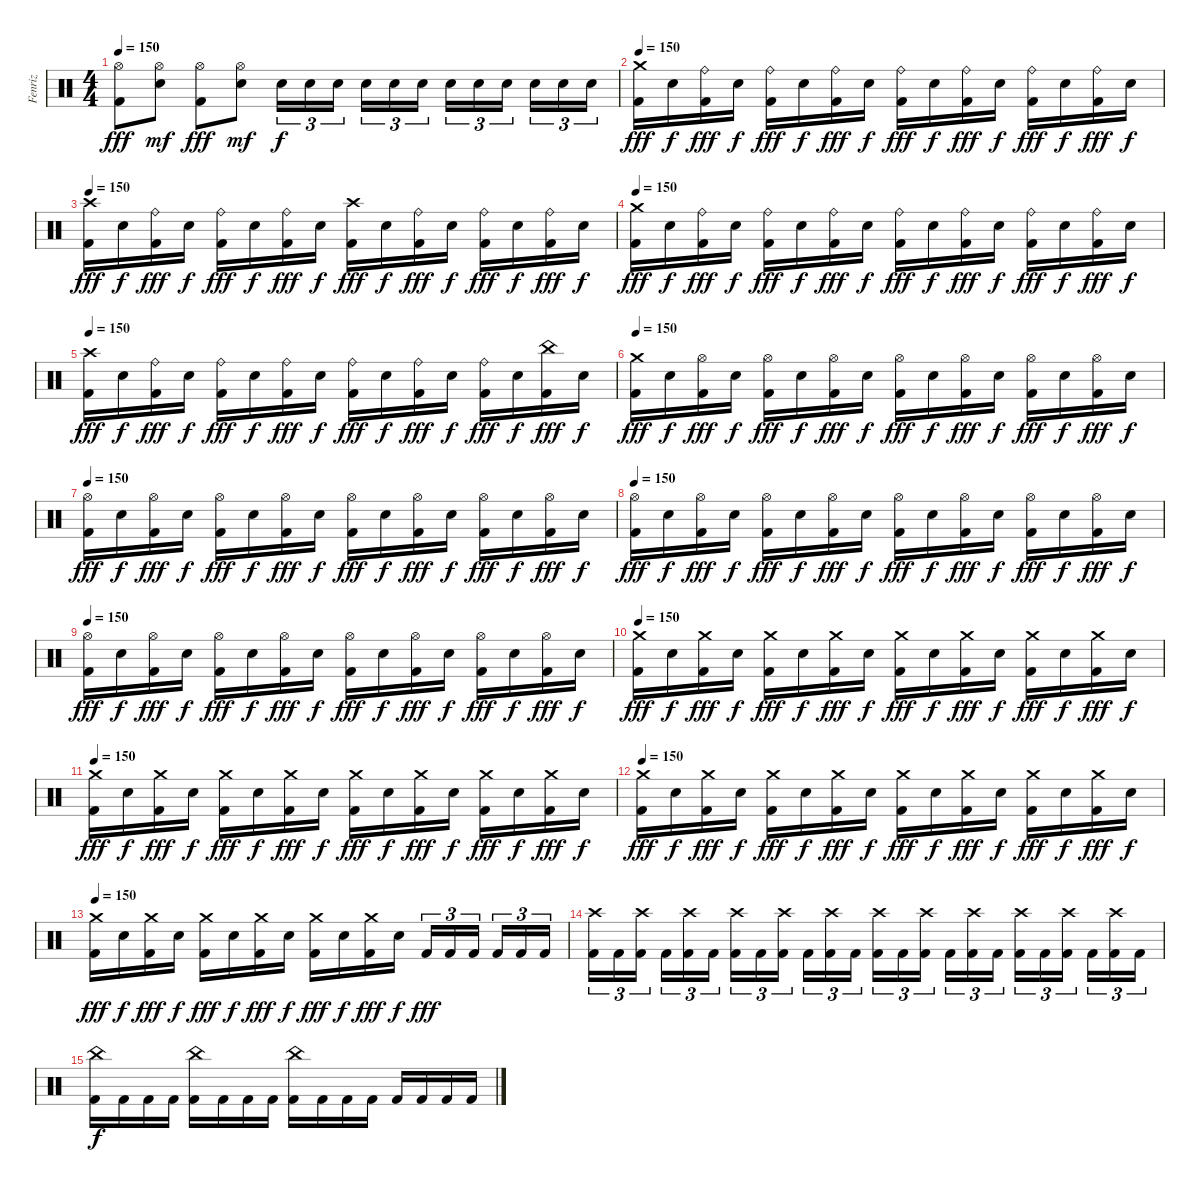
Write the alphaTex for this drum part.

\track ("Fenriz" "Fenriz") {instrument percussion}
\staff {score}
\articulation defaults
\ts (4 4)
\tempo 150
\clef neutral
\ks c
("Hi-Hat (open)" "Kick (hit) 2").8{dy fff} ("Hi-Hat (open)" "Electric Snare (hit)").8{dy mf} ("Hi-Hat (open)" "Kick (hit) 2").8{dy fff} ("Hi-Hat (open)" "Electric Snare (hit)").8{dy mf} "Electric Snare (hit)".16{tu (3 2) dy f} "Electric Snare (hit)".16{tu (3 2)} "Electric Snare (hit)".16{tu (3 2)} "Electric Snare (hit)".16{tu (3 2)} "Electric Snare (hit)".16{tu (3 2)} "Electric Snare (hit)".16{tu (3 2)} "Electric Snare (hit)".16{tu (3 2)} "Electric Snare (hit)".16{tu (3 2)} "Electric Snare (hit)".16{tu (3 2)} "Electric Snare (hit)".16{tu (3 2)} "Electric Snare (hit)".16{tu (3 2)} "Electric Snare (hit)".16{tu (3 2)} |
\tempo 150
("Crash medium (hit)" "Kick (hit) 2").16{dy fff} "Electric Snare (hit)".16{dy f} ("Ride (bell)" "Kick (hit) 2").16{dy fff} "Electric Snare (hit)".16{dy f} ("Ride (bell)" "Kick (hit) 2").16{dy fff} "Electric Snare (hit)".16{dy f} ("Ride (bell)" "Kick (hit) 2").16{dy fff} "Electric Snare (hit)".16{dy f} ("Ride (bell)" "Kick (hit) 2").16{dy fff} "Electric Snare (hit)".16{dy f} ("Ride (bell)" "Kick (hit) 2").16{dy fff} "Electric Snare (hit)".16{dy f} ("Ride (bell)" "Kick (hit) 2").16{dy fff} "Electric Snare (hit)".16{dy f} ("Ride (bell)" "Kick (hit) 2").16{dy fff} "Electric Snare (hit)".16{dy f} |
\tempo 150
("Crash high (hit)" "Kick (hit) 2").16{dy fff} "Electric Snare (hit)".16{dy f} ("Ride (bell)" "Kick (hit) 2").16{dy fff} "Electric Snare (hit)".16{dy f} ("Ride (bell)" "Kick (hit) 2").16{dy fff} "Electric Snare (hit)".16{dy f} ("Ride (bell)" "Kick (hit) 2").16{dy fff} "Electric Snare (hit)".16{dy f} ("Crash high (hit)" "Kick (hit) 2").16{dy fff} "Electric Snare (hit)".16{dy f} ("Ride (bell)" "Kick (hit) 2").16{dy fff} "Electric Snare (hit)".16{dy f} ("Ride (bell)" "Kick (hit) 2").16{dy fff} "Electric Snare (hit)".16{dy f} ("Ride (bell)" "Kick (hit) 2").16{dy fff} "Electric Snare (hit)".16{dy f} |
\tempo 150
("Crash medium (hit)" "Kick (hit) 2").16{dy fff} "Electric Snare (hit)".16{dy f} ("Ride (bell)" "Kick (hit) 2").16{dy fff} "Electric Snare (hit)".16{dy f} ("Ride (bell)" "Kick (hit) 2").16{dy fff} "Electric Snare (hit)".16{dy f} ("Ride (bell)" "Kick (hit) 2").16{dy fff} "Electric Snare (hit)".16{dy f} ("Ride (bell)" "Kick (hit) 2").16{dy fff} "Electric Snare (hit)".16{dy f} ("Ride (bell)" "Kick (hit) 2").16{dy fff} "Electric Snare (hit)".16{dy f} ("Ride (bell)" "Kick (hit) 2").16{dy fff} "Electric Snare (hit)".16{dy f} ("Ride (bell)" "Kick (hit) 2").16{dy fff} "Electric Snare (hit)".16{dy f} |
\tempo 150
("Crash high (hit)" "Kick (hit) 2").16{dy fff} "Electric Snare (hit)".16{dy f} ("Ride (bell)" "Kick (hit) 2").16{dy fff} "Electric Snare (hit)".16{dy f} ("Ride (bell)" "Kick (hit) 2").16{dy fff} "Electric Snare (hit)".16{dy f} ("Ride (bell)" "Kick (hit) 2").16{dy fff} "Electric Snare (hit)".16{dy f} ("Ride (bell)" "Kick (hit) 2").16{dy fff} "Electric Snare (hit)".16{dy f} ("Ride (bell)" "Kick (hit) 2").16{dy fff} "Electric Snare (hit)".16{dy f} ("Ride (bell)" "Kick (hit) 2").16{dy fff} "Electric Snare (hit)".16{dy f} ("China (hit)" "Kick (hit) 2").16{dy fff} "Electric Snare (hit)".16{dy f} |
\tempo 150
("Crash medium (hit)" "Kick (hit) 2").16{dy fff} "Electric Snare (hit)".16{dy f} ("Hi-Hat (open)" "Kick (hit) 2").16{dy fff} "Electric Snare (hit)".16{dy f} ("Hi-Hat (open)" "Kick (hit) 2").16{dy fff} "Electric Snare (hit)".16{dy f} ("Hi-Hat (open)" "Kick (hit) 2").16{dy fff} "Electric Snare (hit)".16{dy f} ("Hi-Hat (open)" "Kick (hit) 2").16{dy fff} "Electric Snare (hit)".16{dy f} ("Hi-Hat (open)" "Kick (hit) 2").16{dy fff} "Electric Snare (hit)".16{dy f} ("Hi-Hat (open)" "Kick (hit) 2").16{dy fff} "Electric Snare (hit)".16{dy f} ("Hi-Hat (open)" "Kick (hit) 2").16{dy fff} "Electric Snare (hit)".16{dy f} |
\tempo 150
("Hi-Hat (open)" "Kick (hit) 2").16{dy fff} "Electric Snare (hit)".16{dy f} ("Hi-Hat (open)" "Kick (hit) 2").16{dy fff} "Electric Snare (hit)".16{dy f} ("Hi-Hat (open)" "Kick (hit) 2").16{dy fff} "Electric Snare (hit)".16{dy f} ("Hi-Hat (open)" "Kick (hit) 2").16{dy fff} "Electric Snare (hit)".16{dy f} ("Hi-Hat (open)" "Kick (hit) 2").16{dy fff} "Electric Snare (hit)".16{dy f} ("Hi-Hat (open)" "Kick (hit) 2").16{dy fff} "Electric Snare (hit)".16{dy f} ("Hi-Hat (open)" "Kick (hit) 2").16{dy fff} "Electric Snare (hit)".16{dy f} ("Hi-Hat (open)" "Kick (hit) 2").16{dy fff} "Electric Snare (hit)".16{dy f} |
\tempo 150
("Hi-Hat (open)" "Kick (hit) 2").16{dy fff} "Electric Snare (hit)".16{dy f} ("Hi-Hat (open)" "Kick (hit) 2").16{dy fff} "Electric Snare (hit)".16{dy f} ("Hi-Hat (open)" "Kick (hit) 2").16{dy fff} "Electric Snare (hit)".16{dy f} ("Hi-Hat (open)" "Kick (hit) 2").16{dy fff} "Electric Snare (hit)".16{dy f} ("Hi-Hat (open)" "Kick (hit) 2").16{dy fff} "Electric Snare (hit)".16{dy f} ("Hi-Hat (open)" "Kick (hit) 2").16{dy fff} "Electric Snare (hit)".16{dy f} ("Hi-Hat (open)" "Kick (hit) 2").16{dy fff} "Electric Snare (hit)".16{dy f} ("Hi-Hat (open)" "Kick (hit) 2").16{dy fff} "Electric Snare (hit)".16{dy f} |
\tempo 150
("Hi-Hat (open)" "Kick (hit) 2").16{dy fff} "Electric Snare (hit)".16{dy f} ("Hi-Hat (open)" "Kick (hit) 2").16{dy fff} "Electric Snare (hit)".16{dy f} ("Hi-Hat (open)" "Kick (hit) 2").16{dy fff} "Electric Snare (hit)".16{dy f} ("Hi-Hat (open)" "Kick (hit) 2").16{dy fff} "Electric Snare (hit)".16{dy f} ("Hi-Hat (open)" "Kick (hit) 2").16{dy fff} "Electric Snare (hit)".16{dy f} ("Hi-Hat (open)" "Kick (hit) 2").16{dy fff} "Electric Snare (hit)".16{dy f} ("Hi-Hat (open)" "Kick (hit) 2").16{dy fff} "Electric Snare (hit)".16{dy f} ("Hi-Hat (open)" "Kick (hit) 2").16{dy fff} "Electric Snare (hit)".16{dy f} |
\tempo 150
("Crash medium (hit)" "Kick (hit) 2").16{dy fff} "Electric Snare (hit)".16{dy f} ("Crash medium (hit)" "Kick (hit) 2").16{dy fff} "Electric Snare (hit)".16{dy f} ("Crash medium (hit)" "Kick (hit) 2").16{dy fff} "Electric Snare (hit)".16{dy f} ("Crash medium (hit)" "Kick (hit) 2").16{dy fff} "Electric Snare (hit)".16{dy f} ("Crash medium (hit)" "Kick (hit) 2").16{dy fff} "Electric Snare (hit)".16{dy f} ("Crash medium (hit)" "Kick (hit) 2").16{dy fff} "Electric Snare (hit)".16{dy f} ("Crash medium (hit)" "Kick (hit) 2").16{dy fff} "Electric Snare (hit)".16{dy f} ("Crash medium (hit)" "Kick (hit) 2").16{dy fff} "Electric Snare (hit)".16{dy f} |
\tempo 150
("Crash medium (hit)" "Kick (hit) 2").16{dy fff} "Electric Snare (hit)".16{dy f} ("Crash medium (hit)" "Kick (hit) 2").16{dy fff} "Electric Snare (hit)".16{dy f} ("Crash medium (hit)" "Kick (hit) 2").16{dy fff} "Electric Snare (hit)".16{dy f} ("Crash medium (hit)" "Kick (hit) 2").16{dy fff} "Electric Snare (hit)".16{dy f} ("Crash medium (hit)" "Kick (hit) 2").16{dy fff} "Electric Snare (hit)".16{dy f} ("Crash medium (hit)" "Kick (hit) 2").16{dy fff} "Electric Snare (hit)".16{dy f} ("Crash medium (hit)" "Kick (hit) 2").16{dy fff} "Electric Snare (hit)".16{dy f} ("Crash medium (hit)" "Kick (hit) 2").16{dy fff} "Electric Snare (hit)".16{dy f} |
\tempo 150
("Crash medium (hit)" "Kick (hit) 2").16{dy fff} "Electric Snare (hit)".16{dy f} ("Crash medium (hit)" "Kick (hit) 2").16{dy fff} "Electric Snare (hit)".16{dy f} ("Crash medium (hit)" "Kick (hit) 2").16{dy fff} "Electric Snare (hit)".16{dy f} ("Crash medium (hit)" "Kick (hit) 2").16{dy fff} "Electric Snare (hit)".16{dy f} ("Crash medium (hit)" "Kick (hit) 2").16{dy fff} "Electric Snare (hit)".16{dy f} ("Crash medium (hit)" "Kick (hit) 2").16{dy fff} "Electric Snare (hit)".16{dy f} ("Crash medium (hit)" "Kick (hit) 2").16{dy fff} "Electric Snare (hit)".16{dy f} ("Crash medium (hit)" "Kick (hit) 2").16{dy fff} "Electric Snare (hit)".16{dy f} |
\tempo 150
("Crash medium (hit)" "Kick (hit) 2").16{dy fff} "Electric Snare (hit)".16{dy f} ("Crash medium (hit)" "Kick (hit) 2").16{dy fff} "Electric Snare (hit)".16{dy f} ("Crash medium (hit)" "Kick (hit) 2").16{dy fff} "Electric Snare (hit)".16{dy f} ("Crash medium (hit)" "Kick (hit) 2").16{dy fff} "Electric Snare (hit)".16{dy f} ("Crash medium (hit)" "Kick (hit) 2").16{dy fff} "Electric Snare (hit)".16{dy f} ("Crash medium (hit)" "Kick (hit) 2").16{dy fff} "Electric Snare (hit)".16{dy f} "Kick (hit) 2".16{tu (3 2) dy fff} "Kick (hit) 2".16{tu (3 2)} "Kick (hit) 2".16{tu (3 2)} "Kick (hit) 2".16{tu (3 2)} "Kick (hit) 2".16{tu (3 2)} "Kick (hit) 2".16{tu (3 2)} |
("Crash high (hit)" "Kick (hit) 2").16{tu (3 2)} "Kick (hit) 2".16{tu (3 2)} ("Crash high (hit)" "Kick (hit) 2").16{tu (3 2)} "Kick (hit) 2".16{tu (3 2)} ("Crash high (hit)" "Kick (hit) 2").16{tu (3 2)} "Kick (hit) 2".16{tu (3 2)} ("Crash high (hit)" "Kick (hit) 2").16{tu (3 2)} "Kick (hit) 2".16{tu (3 2)} ("Crash high (hit)" "Kick (hit) 2").16{tu (3 2)} "Kick (hit) 2".16{tu (3 2)} ("Crash high (hit)" "Kick (hit) 2").16{tu (3 2)} "Kick (hit) 2".16{tu (3 2)} ("Crash high (hit)" "Kick (hit) 2").16{tu (3 2)} "Kick (hit) 2".16{tu (3 2)} ("Crash high (hit)" "Kick (hit) 2").16{tu (3 2)} "Kick (hit) 2".16{tu (3 2)} ("Crash high (hit)" "Kick (hit) 2").16{tu (3 2)} "Kick (hit) 2".16{tu (3 2)} ("Crash high (hit)" "Kick (hit) 2").16{tu (3 2)} "Kick (hit) 2".16{tu (3 2)} ("Crash high (hit)" "Kick (hit) 2").16{tu (3 2)} "Kick (hit) 2".16{tu (3 2)} ("Crash high (hit)" "Kick (hit) 2").16{tu (3 2)} "Kick (hit) 2".16{tu (3 2)} |
("China (hit)" "Kick (hit) 2").16{dy f} "Kick (hit) 2".16 "Kick (hit) 2".16 "Kick (hit) 2".16 ("China (hit)" "Kick (hit) 2").16 "Kick (hit) 2".16 "Kick (hit) 2".16 "Kick (hit) 2".16 ("China (hit)" "Kick (hit) 2").16 "Kick (hit) 2".16 "Kick (hit) 2".16 "Kick (hit) 2".16 "Kick (hit) 2".16 "Kick (hit) 2".16 "Kick (hit) 2".16 "Kick (hit) 2".16
